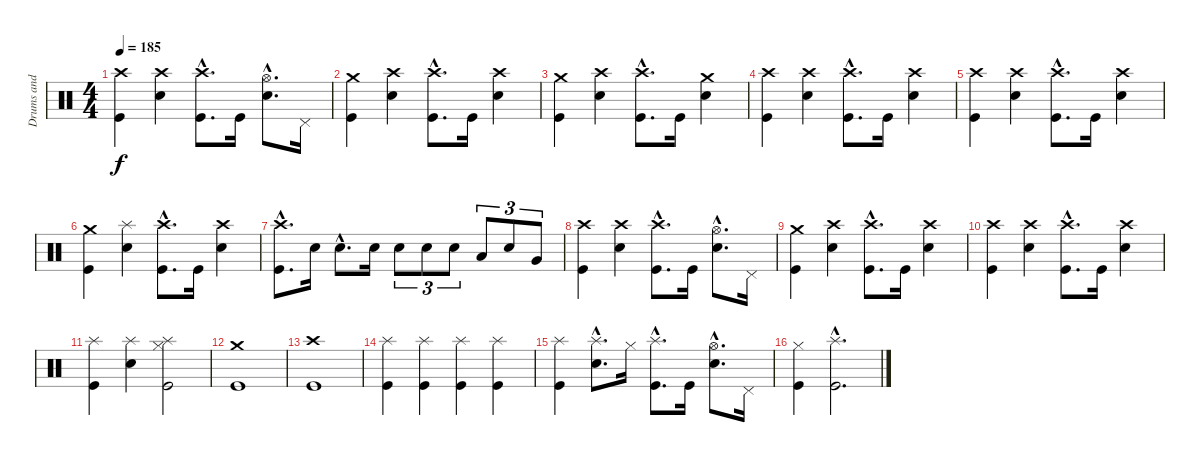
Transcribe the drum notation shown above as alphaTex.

\track ("Drums and percussion" "Drums and ") {instrument percussion}
\staff {score}
\articulation defaults
\ts (4 4)
\tempo 185
\clef neutral
\ks c
("Crash high (hit)" "Kick (hit)").4{dy f} ("Crash high (hit)" "Snare (hit) 2").4 ("Crash high (hit)"{hac} "Kick (hit)"{hac}).8{d} "Kick (hit)".16 ("Hi-Hat (open)"{hac} "Snare (hit) 2"{hac}).8{d} "Pedal Hi-Hat (hit)".16 |
("Crash medium (hit)" "Kick (hit)").4 ("Crash high (hit)" "Snare (hit) 2").4 ("Crash high (hit)"{hac} "Kick (hit)"{hac}).8{d} "Kick (hit)".16 ("Crash high (hit)" "Snare (hit) 2").4 |
("Crash medium (hit)" "Kick (hit)").4 ("Crash high (hit)" "Snare (hit) 2").4 ("Crash high (hit)"{hac} "Kick (hit)"{hac}).8{d} "Kick (hit)".16 ("Crash medium (hit)" "Snare (hit) 2").4 |
("Crash high (hit)" "Kick (hit)").4 ("Crash high (hit)" "Snare (hit) 2").4 ("Crash high (hit)"{hac} "Kick (hit)"{hac}).8{d} "Kick (hit)".16 ("Crash high (hit)" "Snare (hit) 2").4 |
("Crash high (hit)" "Kick (hit)").4 ("Crash high (hit)" "Snare (hit) 2").4 ("Crash high (hit)"{hac} "Kick (hit)"{hac}).8{d} "Kick (hit)".16 ("Crash high (hit)" "Snare (hit) 2").4 |
("Crash medium (hit)" "Kick (hit)").4 ("Splash (hit)" "Snare (hit) 2").4 ("Crash high (hit)"{hac} "Kick (hit)"{hac}).8{d} "Kick (hit)".16 ("Crash high (hit)" "Snare (hit) 2").4 |
("Crash high (hit)"{hac} "Kick (hit)"{hac}).8{d} "Snare (hit) 2".16 "Snare (hit) 2"{hac}.8{d} "Snare (hit) 2".16 "Snare (hit) 2".8{tu (3 2)} "Snare (hit) 2".8{tu (3 2)} "Snare (hit) 2".8{tu (3 2)} "Low Tom (hit)".8{tu (3 2)} "Snare (hit) 2".8{tu (3 2)} "Very Low Tom (hit)".8{tu (3 2)} |
("Crash high (hit)" "Kick (hit)").4 ("Crash high (hit)" "Snare (hit) 2").4 ("Crash high (hit)"{hac} "Kick (hit)"{hac}).8{d} "Kick (hit)".16 ("Hi-Hat (open)"{hac} "Snare (hit) 2"{hac}).8{d} "Pedal Hi-Hat (hit)".16 |
("Crash medium (hit)" "Kick (hit)").4 ("Crash high (hit)" "Snare (hit) 2").4 ("Crash high (hit)"{hac} "Kick (hit)"{hac}).8{d} "Kick (hit)".16 ("Crash high (hit)" "Snare (hit) 2").4 |
("Crash high (hit)" "Kick (hit)").4 ("Crash high (hit)" "Snare (hit) 2").4 ("Crash high (hit)"{hac} "Kick (hit)"{hac}).8{d} "Kick (hit)".16 ("Crash high (hit)" "Snare (hit) 2").4 |
("Splash (hit)" "Kick (hit)").4 ("Splash (hit)" "Snare (hit) 2").4 ("Hi-Hat (closed)" "Splash (hit)" "Kick (hit)").2 |
("Crash medium (hit)" "Kick (hit)").1 |
("Crash high (hit)" "Kick (hit)").1 |
("Splash (hit)" "Kick (hit)").4 ("Splash (hit)" "Kick (hit)").4 ("Splash (hit)" "Kick (hit)").4 ("Splash (hit)" "Kick (hit)").4 |
("Splash (hit)" "Kick (hit)").4 ("Splash (hit)"{hac} "Snare (hit) 2"{hac}).8{d} "Hi-Hat (closed)".16 ("Splash (hit)"{hac} "Kick (hit)"{hac}).8{d} "Kick (hit)".16 ("Hi-Hat (open)"{hac} "Snare (hit) 2"{hac}).8{d} "Pedal Hi-Hat (hit)".16 |
("Hi-Hat (closed)" "Kick (hit)").4 ("Splash (hit)"{hac} "Kick (hit)"{hac}).2{d}
